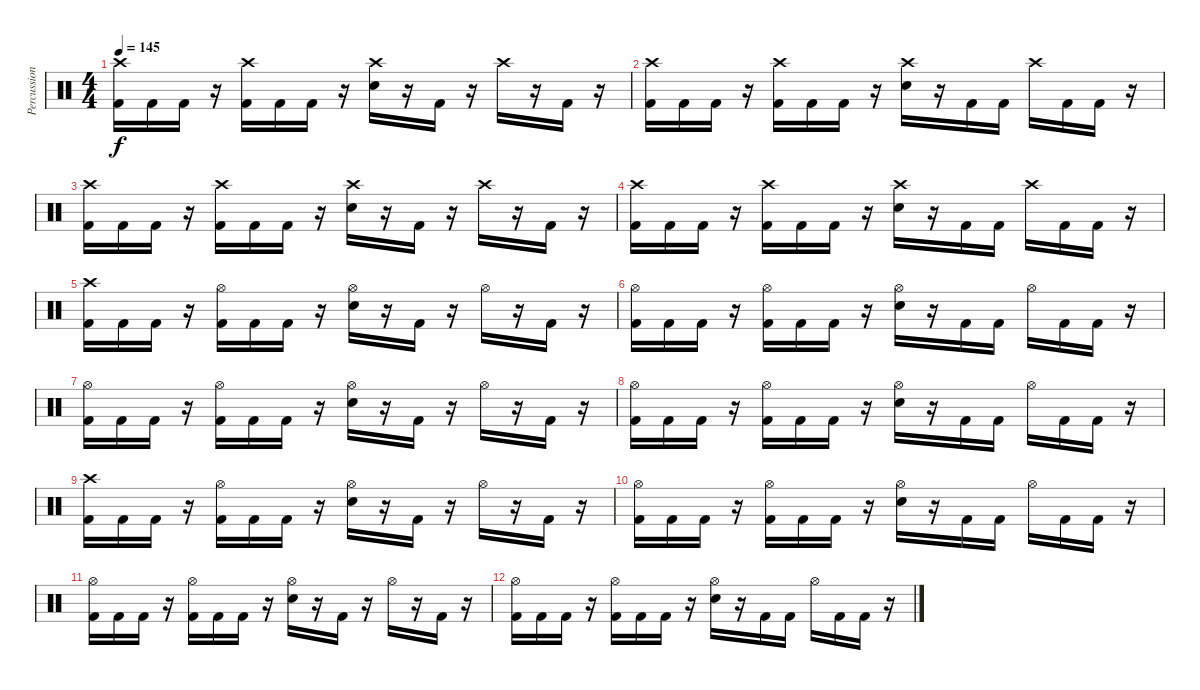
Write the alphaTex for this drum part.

\track ("Percussion" "Percussion") {instrument percussion}
\staff {score}
\articulation defaults
\ts (4 4)
\tempo 145
\clef neutral
\ks aminor
("Crash high (hit)" "Kick (hit) 2").16{dy f volume 13} "Kick (hit) 2".16 "Kick (hit) 2".16 r.16 ("Crash high (hit)" "Kick (hit) 2").16 "Kick (hit) 2".16 "Kick (hit) 2".16 r.16 ("Crash high (hit)" "Electric Snare (hit)").16 r.16 "Kick (hit) 2".16 r.16 "Crash high (hit)".16 r.16 "Kick (hit) 2".16 r.16 |
("Crash high (hit)" "Kick (hit) 2").16 "Kick (hit) 2".16 "Kick (hit) 2".16 r.16 ("Crash high (hit)" "Kick (hit) 2").16 "Kick (hit) 2".16 "Kick (hit) 2".16 r.16 ("Crash high (hit)" "Electric Snare (hit)").16 r.16 "Kick (hit) 2".16 "Kick (hit) 2".16 "Crash high (hit)".16 "Kick (hit) 2".16 "Kick (hit) 2".16 r.16 |
("Crash high (hit)" "Kick (hit) 2").16 "Kick (hit) 2".16 "Kick (hit) 2".16 r.16 ("Crash high (hit)" "Kick (hit) 2").16 "Kick (hit) 2".16 "Kick (hit) 2".16 r.16 ("Crash high (hit)" "Electric Snare (hit)").16 r.16 "Kick (hit) 2".16 r.16 "Crash high (hit)".16 r.16 "Kick (hit) 2".16 r.16 |
("Crash high (hit)" "Kick (hit) 2").16 "Kick (hit) 2".16 "Kick (hit) 2".16 r.16 ("Crash high (hit)" "Kick (hit) 2").16 "Kick (hit) 2".16 "Kick (hit) 2".16 r.16 ("Crash high (hit)" "Electric Snare (hit)").16 r.16 "Kick (hit) 2".16 "Kick (hit) 2".16 "Crash high (hit)".16 "Kick (hit) 2".16 "Kick (hit) 2".16 r.16 |
("Crash high (hit)" "Kick (hit) 2").16 "Kick (hit) 2".16 "Kick (hit) 2".16 r.16 ("Hi-Hat (open)" "Kick (hit) 2").16 "Kick (hit) 2".16 "Kick (hit) 2".16 r.16 ("Hi-Hat (open)" "Electric Snare (hit)").16 r.16 "Kick (hit) 2".16 r.16 "Hi-Hat (open)".16 r.16 "Kick (hit) 2".16 r.16 |
("Hi-Hat (open)" "Kick (hit) 2").16 "Kick (hit) 2".16 "Kick (hit) 2".16 r.16 ("Hi-Hat (open)" "Kick (hit) 2").16 "Kick (hit) 2".16 "Kick (hit) 2".16 r.16 ("Hi-Hat (open)" "Electric Snare (hit)").16 r.16 "Kick (hit) 2".16 "Kick (hit) 2".16 "Hi-Hat (open)".16 "Kick (hit) 2".16 "Kick (hit) 2".16 r.16 |
("Hi-Hat (open)" "Kick (hit) 2").16 "Kick (hit) 2".16 "Kick (hit) 2".16 r.16 ("Hi-Hat (open)" "Kick (hit) 2").16 "Kick (hit) 2".16 "Kick (hit) 2".16 r.16 ("Hi-Hat (open)" "Electric Snare (hit)").16 r.16 "Kick (hit) 2".16 r.16 "Hi-Hat (open)".16 r.16 "Kick (hit) 2".16 r.16 |
("Hi-Hat (open)" "Kick (hit) 2").16 "Kick (hit) 2".16 "Kick (hit) 2".16 r.16 ("Hi-Hat (open)" "Kick (hit) 2").16 "Kick (hit) 2".16 "Kick (hit) 2".16 r.16 ("Hi-Hat (open)" "Electric Snare (hit)").16 r.16 "Kick (hit) 2".16 "Kick (hit) 2".16 "Hi-Hat (open)".16 "Kick (hit) 2".16 "Kick (hit) 2".16 r.16 |
("Crash high (hit)" "Kick (hit) 2").16 "Kick (hit) 2".16 "Kick (hit) 2".16 r.16 ("Hi-Hat (open)" "Kick (hit) 2").16 "Kick (hit) 2".16 "Kick (hit) 2".16 r.16 ("Hi-Hat (open)" "Electric Snare (hit)").16 r.16 "Kick (hit) 2".16 r.16 "Hi-Hat (open)".16 r.16 "Kick (hit) 2".16 r.16 |
("Hi-Hat (open)" "Kick (hit) 2").16 "Kick (hit) 2".16 "Kick (hit) 2".16 r.16 ("Hi-Hat (open)" "Kick (hit) 2").16 "Kick (hit) 2".16 "Kick (hit) 2".16 r.16 ("Hi-Hat (open)" "Electric Snare (hit)").16 r.16 "Kick (hit) 2".16 "Kick (hit) 2".16 "Hi-Hat (open)".16 "Kick (hit) 2".16 "Kick (hit) 2".16 r.16 |
("Hi-Hat (open)" "Kick (hit) 2").16 "Kick (hit) 2".16 "Kick (hit) 2".16 r.16 ("Hi-Hat (open)" "Kick (hit) 2").16 "Kick (hit) 2".16 "Kick (hit) 2".16 r.16 ("Hi-Hat (open)" "Electric Snare (hit)").16 r.16 "Kick (hit) 2".16 r.16 "Hi-Hat (open)".16 r.16 "Kick (hit) 2".16 r.16 |
("Hi-Hat (open)" "Kick (hit) 2").16 "Kick (hit) 2".16 "Kick (hit) 2".16 r.16 ("Hi-Hat (open)" "Kick (hit) 2").16 "Kick (hit) 2".16 "Kick (hit) 2".16 r.16 ("Hi-Hat (open)" "Electric Snare (hit)").16 r.16 "Kick (hit) 2".16 "Kick (hit) 2".16 "Hi-Hat (open)".16 "Kick (hit) 2".16 "Kick (hit) 2".16 r.16
